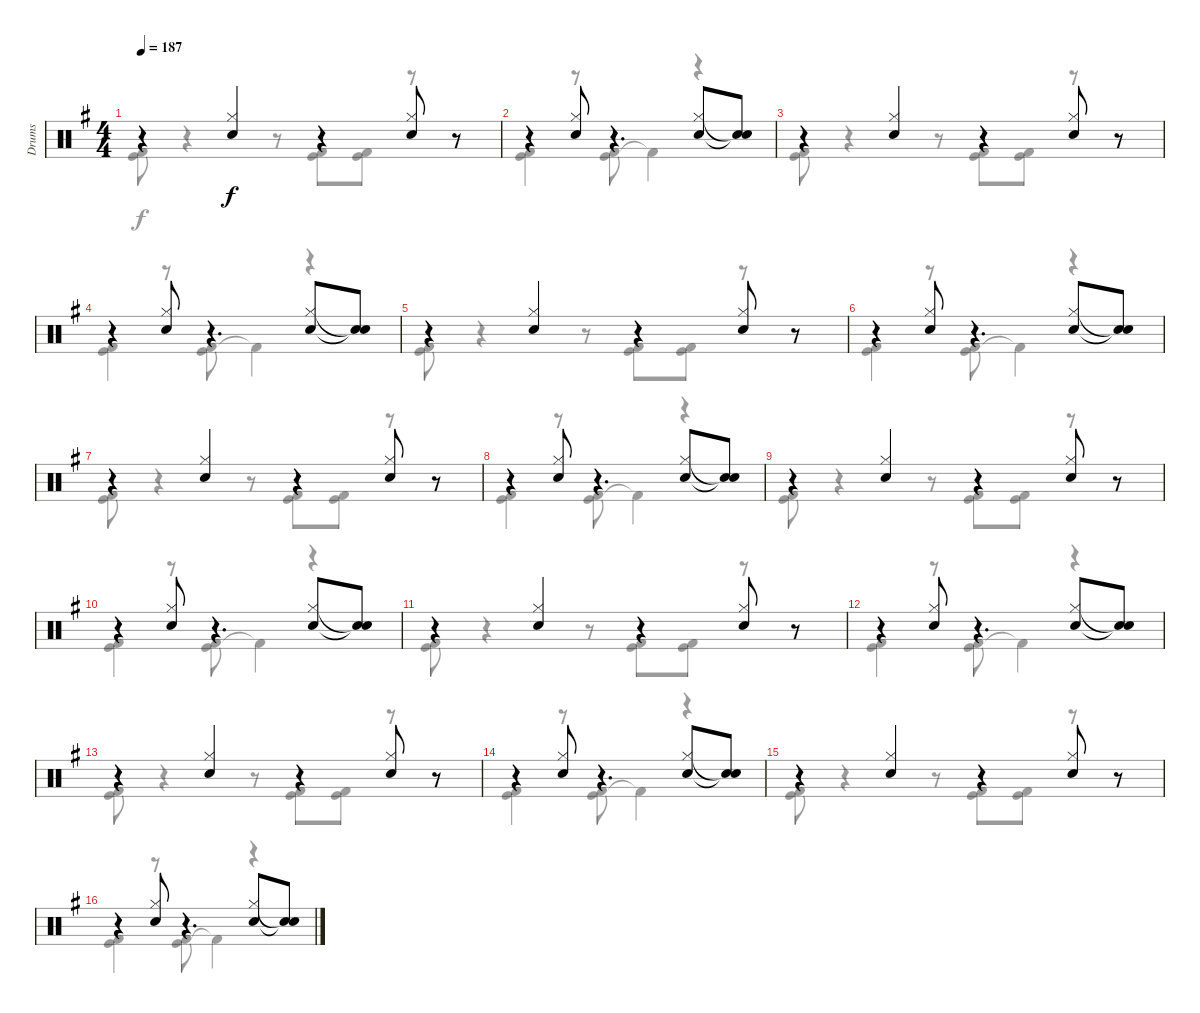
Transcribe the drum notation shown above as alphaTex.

\track ("Drums" "Drums") {instrument percussion}
\staff {score}
\articulation defaults
\voice
\ts (4 4)
\tempo 187
\clef neutral
\ks g
r.4{dy f} ("Hi-Hat (closed)" "Electric Snare (hit)").4 r.4 ("Hi-Hat (closed)" "Electric Snare (hit)").8 r.8 |
r.4 ("Hi-Hat (closed)" "Electric Snare (hit)").8 r.4{d} ("Hi-Hat (closed)" "Electric Snare (hit)").8 ("Snare (hit)"{t} "Snare (hit)"{t}).8 |
r.4 ("Hi-Hat (closed)" "Electric Snare (hit)").4 r.4 ("Hi-Hat (closed)" "Electric Snare (hit)").8 r.8 |
r.4 ("Hi-Hat (closed)" "Electric Snare (hit)").8 r.4{d} ("Hi-Hat (closed)" "Electric Snare (hit)").8 ("Snare (hit)"{t} "Snare (hit)"{t}).8 |
r.4 ("Hi-Hat (closed)" "Electric Snare (hit)").4 r.4 ("Hi-Hat (closed)" "Electric Snare (hit)").8 r.8 |
r.4 ("Hi-Hat (closed)" "Electric Snare (hit)").8 r.4{d} ("Hi-Hat (closed)" "Electric Snare (hit)").8 ("Snare (hit)"{t} "Snare (hit)"{t}).8 |
r.4 ("Hi-Hat (closed)" "Electric Snare (hit)").4 r.4 ("Hi-Hat (closed)" "Electric Snare (hit)").8 r.8 |
r.4 ("Hi-Hat (closed)" "Electric Snare (hit)").8 r.4{d} ("Hi-Hat (closed)" "Electric Snare (hit)").8 ("Snare (hit)"{t} "Snare (hit)"{t}).8 |
r.4 ("Hi-Hat (closed)" "Electric Snare (hit)").4 r.4 ("Hi-Hat (closed)" "Electric Snare (hit)").8 r.8 |
r.4 ("Hi-Hat (closed)" "Electric Snare (hit)").8 r.4{d} ("Hi-Hat (closed)" "Electric Snare (hit)").8 ("Snare (hit)"{t} "Snare (hit)"{t}).8 |
r.4 ("Hi-Hat (closed)" "Electric Snare (hit)").4 r.4 ("Hi-Hat (closed)" "Electric Snare (hit)").8 r.8 |
r.4 ("Hi-Hat (closed)" "Electric Snare (hit)").8 r.4{d} ("Hi-Hat (closed)" "Electric Snare (hit)").8 ("Snare (hit)"{t} "Snare (hit)"{t}).8 |
r.4 ("Hi-Hat (closed)" "Electric Snare (hit)").4 r.4 ("Hi-Hat (closed)" "Electric Snare (hit)").8 r.8 |
r.4 ("Hi-Hat (closed)" "Electric Snare (hit)").8 r.4{d} ("Hi-Hat (closed)" "Electric Snare (hit)").8 ("Snare (hit)"{t} "Snare (hit)"{t}).8 |
r.4 ("Hi-Hat (closed)" "Electric Snare (hit)").4 r.4 ("Hi-Hat (closed)" "Electric Snare (hit)").8 r.8 |
r.4 ("Hi-Hat (closed)" "Electric Snare (hit)").8 r.4{d} ("Hi-Hat (closed)" "Electric Snare (hit)").8 ("Snare (hit)"{t} "Snare (hit)"{t}).8
\voice
\clef neutral
\ottava regular
\simile none
\ks g
("Kick (hit)" "Kick (hit) 2").8{dy f} r.4 r.8 ("Kick (hit)" "Kick (hit) 2").8 ("Kick (hit)" "Kick (hit) 2").8 r.8 r.8 |
("Kick (hit)" "Kick (hit) 2").4 r.8 ("Kick (hit)" "Kick (hit) 2").8 "Kick (hit) 2"{t}.4 r.4 |
("Kick (hit)" "Kick (hit) 2").8 r.4 r.8 ("Kick (hit)" "Kick (hit) 2").8 ("Kick (hit)" "Kick (hit) 2").8 r.8 r.8 |
("Kick (hit)" "Kick (hit) 2").4 r.8 ("Kick (hit)" "Kick (hit) 2").8 "Kick (hit) 2"{t}.4 r.4 |
("Kick (hit)" "Kick (hit) 2").8 r.4 r.8 ("Kick (hit)" "Kick (hit) 2").8 ("Kick (hit)" "Kick (hit) 2").8 r.8 r.8 |
("Kick (hit)" "Kick (hit) 2").4 r.8 ("Kick (hit)" "Kick (hit) 2").8 "Kick (hit) 2"{t}.4 r.4 |
("Kick (hit)" "Kick (hit) 2").8 r.4 r.8 ("Kick (hit)" "Kick (hit) 2").8 ("Kick (hit)" "Kick (hit) 2").8 r.8 r.8 |
("Kick (hit)" "Kick (hit) 2").4 r.8 ("Kick (hit)" "Kick (hit) 2").8 "Kick (hit) 2"{t}.4 r.4 |
("Kick (hit)" "Kick (hit) 2").8 r.4 r.8 ("Kick (hit)" "Kick (hit) 2").8 ("Kick (hit)" "Kick (hit) 2").8 r.8 r.8 |
("Kick (hit)" "Kick (hit) 2").4 r.8 ("Kick (hit)" "Kick (hit) 2").8 "Kick (hit) 2"{t}.4 r.4 |
("Kick (hit)" "Kick (hit) 2").8 r.4 r.8 ("Kick (hit)" "Kick (hit) 2").8 ("Kick (hit)" "Kick (hit) 2").8 r.8 r.8 |
("Kick (hit)" "Kick (hit) 2").4 r.8 ("Kick (hit)" "Kick (hit) 2").8 "Kick (hit) 2"{t}.4 r.4 |
("Kick (hit)" "Kick (hit) 2").8 r.4 r.8 ("Kick (hit)" "Kick (hit) 2").8 ("Kick (hit)" "Kick (hit) 2").8 r.8 r.8 |
("Kick (hit)" "Kick (hit) 2").4 r.8 ("Kick (hit)" "Kick (hit) 2").8 "Kick (hit) 2"{t}.4 r.4 |
("Kick (hit)" "Kick (hit) 2").8 r.4 r.8 ("Kick (hit)" "Kick (hit) 2").8 ("Kick (hit)" "Kick (hit) 2").8 r.8 r.8 |
("Kick (hit)" "Kick (hit) 2").4 r.8 ("Kick (hit)" "Kick (hit) 2").8 "Kick (hit) 2"{t}.4 r.4
